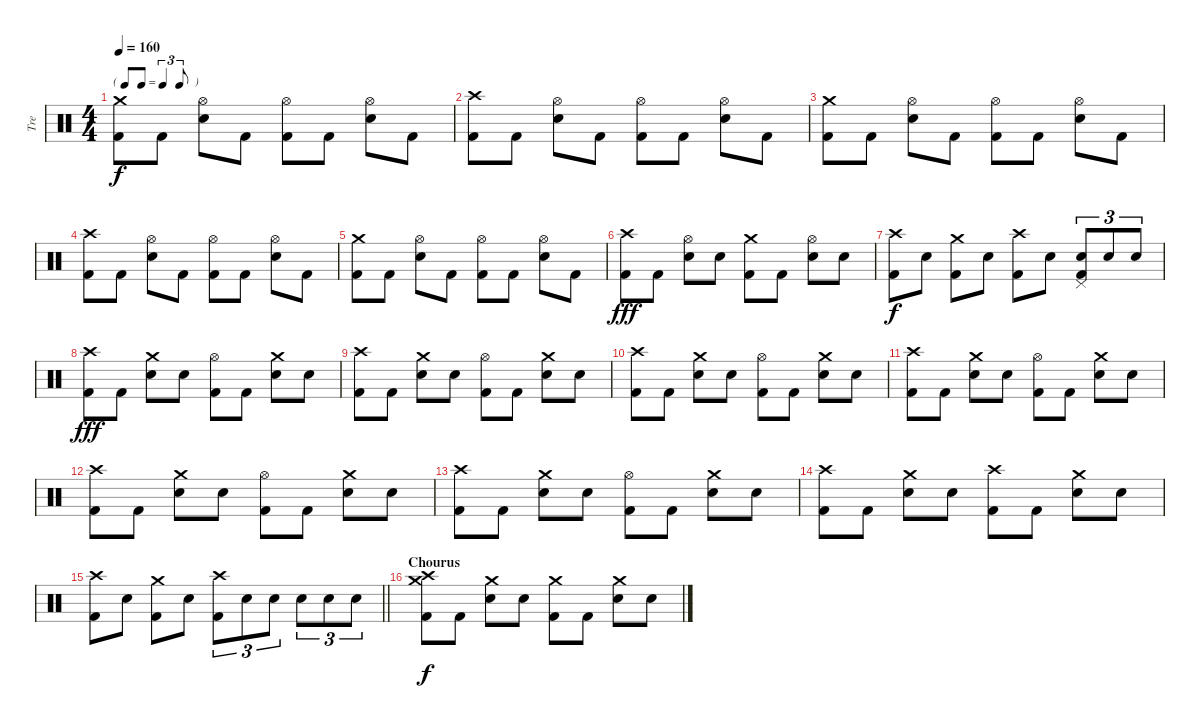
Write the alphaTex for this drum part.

\track ("Tre" "Tre") {instrument percussion}
\staff {score}
\articulation defaults
\ts (4 4)
\tf triplet8th
\tempo 160
\clef neutral
\ks c
("Crash medium (hit)" "Kick (hit) 2").8{dy f} "Kick (hit) 2".8 ("Hi-Hat (open)" "Snare (hit) 2").8 "Kick (hit) 2".8 ("Hi-Hat (open)" "Kick (hit) 2").8 "Kick (hit) 2".8 ("Hi-Hat (open)" "Snare (hit) 2").8 "Kick (hit) 2".8 |
("Crash high (hit)" "Kick (hit) 2").8 "Kick (hit) 2".8 ("Hi-Hat (open)" "Snare (hit) 2").8 "Kick (hit) 2".8 ("Hi-Hat (open)" "Kick (hit) 2").8 "Kick (hit) 2".8 ("Hi-Hat (open)" "Snare (hit) 2").8 "Kick (hit) 2".8 |
("Crash medium (hit)" "Kick (hit) 2").8 "Kick (hit) 2".8 ("Hi-Hat (open)" "Snare (hit) 2").8 "Kick (hit) 2".8 ("Hi-Hat (open)" "Kick (hit) 2").8 "Kick (hit) 2".8 ("Hi-Hat (open)" "Snare (hit) 2").8 "Kick (hit) 2".8 |
("Crash high (hit)" "Kick (hit) 2").8 "Kick (hit) 2".8 ("Hi-Hat (open)" "Snare (hit) 2").8 "Kick (hit) 2".8 ("Hi-Hat (open)" "Kick (hit) 2").8 "Kick (hit) 2".8 ("Hi-Hat (open)" "Snare (hit) 2").8 "Kick (hit) 2".8 |
("Crash medium (hit)" "Kick (hit) 2").8 "Kick (hit) 2".8 ("Hi-Hat (open)" "Snare (hit) 2").8 "Kick (hit) 2".8 ("Hi-Hat (open)" "Kick (hit) 2").8 "Kick (hit) 2".8 ("Hi-Hat (open)" "Snare (hit) 2").8 "Kick (hit) 2".8 |
("Crash high (hit)" "Kick (hit) 2").8{dy fff} "Kick (hit) 2".8 ("Hi-Hat (open)" "Snare (hit) 2").8 "Snare (hit) 2".8 ("Crash medium (hit)" "Kick (hit) 2").8 "Kick (hit) 2".8 ("Hi-Hat (open)" "Snare (hit) 2").8 "Snare (hit) 2".8 |
("Crash high (hit)" "Kick (hit) 2").8{dy f} "Snare (hit) 2".8 ("Crash medium (hit)" "Kick (hit) 2").8 "Snare (hit) 2".8 ("Crash high (hit)" "Kick (hit) 2").8 "Snare (hit) 2".8 ("Snare (hit) 2" "Pedal Hi-Hat (hit)" "Kick (hit) 2").8{tu (3 2)} "Snare (hit) 2".8{tu (3 2)} "Snare (hit) 2".8{tu (3 2)} |
("Crash high (hit)" "Kick (hit) 2").8{dy fff} "Kick (hit) 2".8 ("Crash medium (hit)" "Snare (hit) 2").8 "Snare (hit) 2".8 ("Hi-Hat (open)" "Kick (hit) 2").8 "Kick (hit) 2".8 ("Crash medium (hit)" "Snare (hit) 2").8 "Snare (hit) 2".8 |
("Crash high (hit)" "Kick (hit) 2").8 "Kick (hit) 2".8 ("Crash medium (hit)" "Snare (hit) 2").8 "Snare (hit) 2".8 ("Hi-Hat (open)" "Kick (hit) 2").8 "Kick (hit) 2".8 ("Crash medium (hit)" "Snare (hit) 2").8 "Snare (hit) 2".8 |
("Crash high (hit)" "Kick (hit) 2").8 "Kick (hit) 2".8 ("Crash medium (hit)" "Snare (hit) 2").8 "Snare (hit) 2".8 ("Hi-Hat (open)" "Kick (hit) 2").8 "Kick (hit) 2".8 ("Crash medium (hit)" "Snare (hit) 2").8 "Snare (hit) 2".8 |
("Crash high (hit)" "Kick (hit) 2").8 "Kick (hit) 2".8 ("Crash medium (hit)" "Snare (hit) 2").8 "Snare (hit) 2".8 ("Hi-Hat (open)" "Kick (hit) 2").8 "Kick (hit) 2".8 ("Crash medium (hit)" "Snare (hit) 2").8 "Snare (hit) 2".8 |
("Crash high (hit)" "Kick (hit) 2").8 "Kick (hit) 2".8 ("Crash medium (hit)" "Snare (hit) 2").8 "Snare (hit) 2".8 ("Hi-Hat (open)" "Kick (hit) 2").8 "Kick (hit) 2".8 ("Crash medium (hit)" "Snare (hit) 2").8 "Snare (hit) 2".8 |
("Crash high (hit)" "Kick (hit) 2").8 "Kick (hit) 2".8 ("Crash medium (hit)" "Snare (hit) 2").8 "Snare (hit) 2".8 ("Hi-Hat (open)" "Kick (hit) 2").8 "Kick (hit) 2".8 ("Crash medium (hit)" "Snare (hit) 2").8 "Snare (hit) 2".8 |
("Crash high (hit)" "Kick (hit) 2").8 "Kick (hit) 2".8 ("Crash medium (hit)" "Snare (hit) 2").8 "Snare (hit) 2".8 ("Crash high (hit)" "Kick (hit) 2").8 "Kick (hit) 2".8 ("Crash medium (hit)" "Snare (hit) 2").8 "Snare (hit) 2".8 |
\barLineRight lightlight
("Crash high (hit)" "Kick (hit) 2").8 "Snare (hit) 2".8 ("Crash medium (hit)" "Kick (hit) 2").8 "Snare (hit) 2".8 ("Crash high (hit)" "Kick (hit) 2").8{tu (3 2)} "Snare (hit) 2".8{tu (3 2)} "Snare (hit) 2".8{tu (3 2)} "Snare (hit) 2".8{tu (3 2)} "Snare (hit) 2".8{tu (3 2)} "Snare (hit) 2".8{tu (3 2)} |
\section ("" "Chourus")
("Crash medium (hit)" "Crash high (hit)" "Kick (hit) 2").8{dy f} "Kick (hit) 2".8 ("Crash medium (hit)" "Snare (hit) 2").8 "Snare (hit) 2".8 ("Crash medium (hit)" "Kick (hit) 2").8 "Kick (hit) 2".8 ("Crash medium (hit)" "Snare (hit) 2").8 "Snare (hit) 2".8
